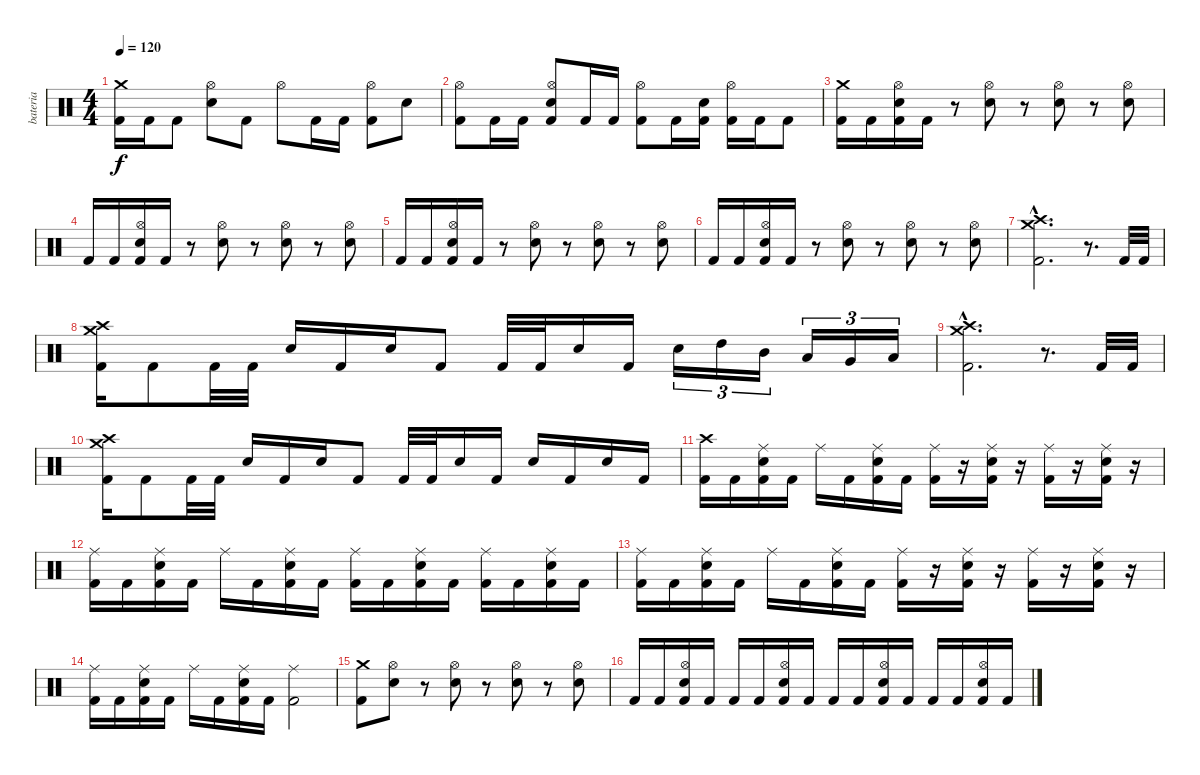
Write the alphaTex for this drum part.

\track ("bateria" "bateria") {instrument percussion}
\staff {score}
\articulation defaults
\ts (4 4)
\tempo 120
\clef neutral
\ks c
("Crash medium (hit)" "Kick (hit) 2").16{dy f} "Kick (hit) 2".16 "Kick (hit) 2".8 ("Hi-Hat (open)" "Electric Snare (hit)").8 "Kick (hit) 2".8 "Hi-Hat (open)".8 "Kick (hit) 2".16 "Kick (hit) 2".16 ("Hi-Hat (open)" "Kick (hit) 2").8 "Electric Snare (hit)".8 |
("Hi-Hat (open)" "Kick (hit) 2").8 "Kick (hit) 2".16 "Kick (hit) 2".16 ("Hi-Hat (open)" "Electric Snare (hit)" "Kick (hit) 2").8 "Kick (hit) 2".16 "Kick (hit) 2".16 ("Hi-Hat (open)" "Kick (hit) 2").8 "Kick (hit) 2".16 ("Electric Snare (hit)" "Kick (hit) 2").16 ("Hi-Hat (open)" "Kick (hit) 2").16 "Kick (hit) 2".16 "Kick (hit) 2".8 |
("Crash medium (hit)" "Kick (hit) 2").16 "Kick (hit) 2".16 ("Hi-Hat (open)" "Electric Snare (hit)" "Kick (hit) 2").16 "Kick (hit) 2".16 r.8 ("Hi-Hat (open)" "Electric Snare (hit)").8 r.8 ("Hi-Hat (open)" "Electric Snare (hit)").8 r.8 ("Hi-Hat (open)" "Electric Snare (hit)").8 |
"Kick (hit) 2".16 "Kick (hit) 2".16 ("Hi-Hat (open)" "Electric Snare (hit)" "Kick (hit) 2").16 "Kick (hit) 2".16 r.8 ("Hi-Hat (open)" "Electric Snare (hit)").8 r.8 ("Hi-Hat (open)" "Electric Snare (hit)").8 r.8 ("Hi-Hat (open)" "Electric Snare (hit)").8 |
"Kick (hit) 2".16 "Kick (hit) 2".16 ("Hi-Hat (open)" "Electric Snare (hit)" "Kick (hit) 2").16 "Kick (hit) 2".16 r.8 ("Hi-Hat (open)" "Electric Snare (hit)").8 r.8 ("Hi-Hat (open)" "Electric Snare (hit)").8 r.8 ("Hi-Hat (open)" "Electric Snare (hit)").8 |
"Kick (hit) 2".16 "Kick (hit) 2".16 ("Hi-Hat (open)" "Electric Snare (hit)" "Kick (hit) 2").16 "Kick (hit) 2".16 r.8 ("Hi-Hat (open)" "Electric Snare (hit)").8 r.8 ("Hi-Hat (open)" "Electric Snare (hit)").8 r.8 ("Hi-Hat (open)" "Electric Snare (hit)").8 |
("Crash medium (hit)"{hac} "Crash high (hit)"{hac} "Kick (hit) 2"{hac}).2{d} r.8{d} "Kick (hit) 2".32 "Kick (hit) 2".32 |
("Crash medium (hit)" "Crash high (hit)" "Kick (hit) 2").16 "Kick (hit) 2".8 "Kick (hit) 2".32 "Kick (hit) 2".32 "Electric Snare (hit)".16 "Kick (hit) 2".16 "Electric Snare (hit)".16 "Kick (hit) 2".8 "Kick (hit) 2".32 "Kick (hit) 2".32 "Electric Snare (hit)".16 "Kick (hit) 2".16 "Electric Snare (hit)".16{tu (3 2)} "High Tom (hit)".16{tu (3 2)} "Mid Tom (hit)".16{tu (3 2)} "Low Tom (hit)".16{tu (3 2)} "Very Low Tom (hit)".16{tu (3 2)} "Low Floor Tom (hit)".16{tu (3 2)} |
("Crash medium (hit)"{hac} "Crash high (hit)"{hac} "Kick (hit) 2"{hac}).2{d} r.8{d} "Kick (hit) 2".32 "Kick (hit) 2".32 |
("Crash medium (hit)" "Crash high (hit)" "Kick (hit) 2").16 "Kick (hit) 2".8 "Kick (hit) 2".32 "Kick (hit) 2".32 "Electric Snare (hit)".16 "Kick (hit) 2".16 "Electric Snare (hit)".16 "Kick (hit) 2".8 "Kick (hit) 2".32 "Kick (hit) 2".32 "Electric Snare (hit)".16 "Kick (hit) 2".16 "Electric Snare (hit)".16 "Kick (hit) 2".16 "Electric Snare (hit)".16 "Kick (hit) 2".16 |
("Crash high (hit)" "Kick (hit) 2").16 "Kick (hit) 2".16 ("Ride (middle)" "Electric Snare (hit)" "Kick (hit) 2").16 "Kick (hit) 2".16 "Ride (middle)".16 "Kick (hit) 2".16 ("Ride (middle)" "Electric Snare (hit)" "Kick (hit) 2").16 "Kick (hit) 2".16 ("Ride (middle)" "Kick (hit) 2").16 r.16 ("Ride (middle)" "Electric Snare (hit)" "Kick (hit) 2").16 r.16 ("Ride (middle)" "Kick (hit) 2").16 r.16 ("Ride (middle)" "Electric Snare (hit)" "Kick (hit) 2").16 r.16 |
("Ride (middle)" "Kick (hit) 2").16 "Kick (hit) 2".16 ("Ride (middle)" "Electric Snare (hit)" "Kick (hit) 2").16 "Kick (hit) 2".16 "Ride (middle)".16 "Kick (hit) 2".16 ("Ride (middle)" "Electric Snare (hit)" "Kick (hit) 2").16 "Kick (hit) 2".16 ("Ride (middle)" "Kick (hit) 2").16 "Kick (hit) 2".16 ("Ride (middle)" "Electric Snare (hit)" "Kick (hit) 2").16 "Kick (hit) 2".16 ("Ride (middle)" "Kick (hit) 2").16 "Kick (hit) 2".16 ("Ride (middle)" "Electric Snare (hit)" "Kick (hit) 2").16 "Kick (hit) 2".16 |
("Ride (middle)" "Kick (hit) 2").16 "Kick (hit) 2".16 ("Ride (middle)" "Electric Snare (hit)" "Kick (hit) 2").16 "Kick (hit) 2".16 "Ride (middle)".16 "Kick (hit) 2".16 ("Ride (middle)" "Electric Snare (hit)" "Kick (hit) 2").16 "Kick (hit) 2".16 ("Ride (middle)" "Kick (hit) 2").16 r.16 ("Ride (middle)" "Electric Snare (hit)" "Kick (hit) 2").16 r.16 ("Ride (middle)" "Kick (hit) 2").16 r.16 ("Ride (middle)" "Electric Snare (hit)" "Kick (hit) 2").16 r.16 |
("Ride (middle)" "Kick (hit) 2").16 "Kick (hit) 2".16 ("Ride (middle)" "Electric Snare (hit)" "Kick (hit) 2").16 "Kick (hit) 2".16 "Ride (middle)".16 "Kick (hit) 2".16 ("Ride (middle)" "Electric Snare (hit)" "Kick (hit) 2").16 "Kick (hit) 2".16 ("Ride (middle)" "Kick (hit) 2").2 |
("Crash medium (hit)" "Kick (hit) 2").8 ("Hi-Hat (open)" "Electric Snare (hit)").8 r.8 ("Hi-Hat (open)" "Electric Snare (hit)").8 r.8 ("Hi-Hat (open)" "Electric Snare (hit)").8 r.8 ("Hi-Hat (open)" "Electric Snare (hit)").8 |
"Kick (hit) 2".16 "Kick (hit) 2".16 ("Hi-Hat (open)" "Electric Snare (hit)" "Kick (hit) 2").16 "Kick (hit) 2".16 "Kick (hit) 2".16 "Kick (hit) 2".16 ("Hi-Hat (open)" "Electric Snare (hit)" "Kick (hit) 2").16 "Kick (hit) 2".16 "Kick (hit) 2".16 "Kick (hit) 2".16 ("Hi-Hat (open)" "Electric Snare (hit)" "Kick (hit) 2").16 "Kick (hit) 2".16 "Kick (hit) 2".16 "Kick (hit) 2".16 ("Hi-Hat (open)" "Electric Snare (hit)" "Kick (hit) 2").16 "Kick (hit) 2".16
